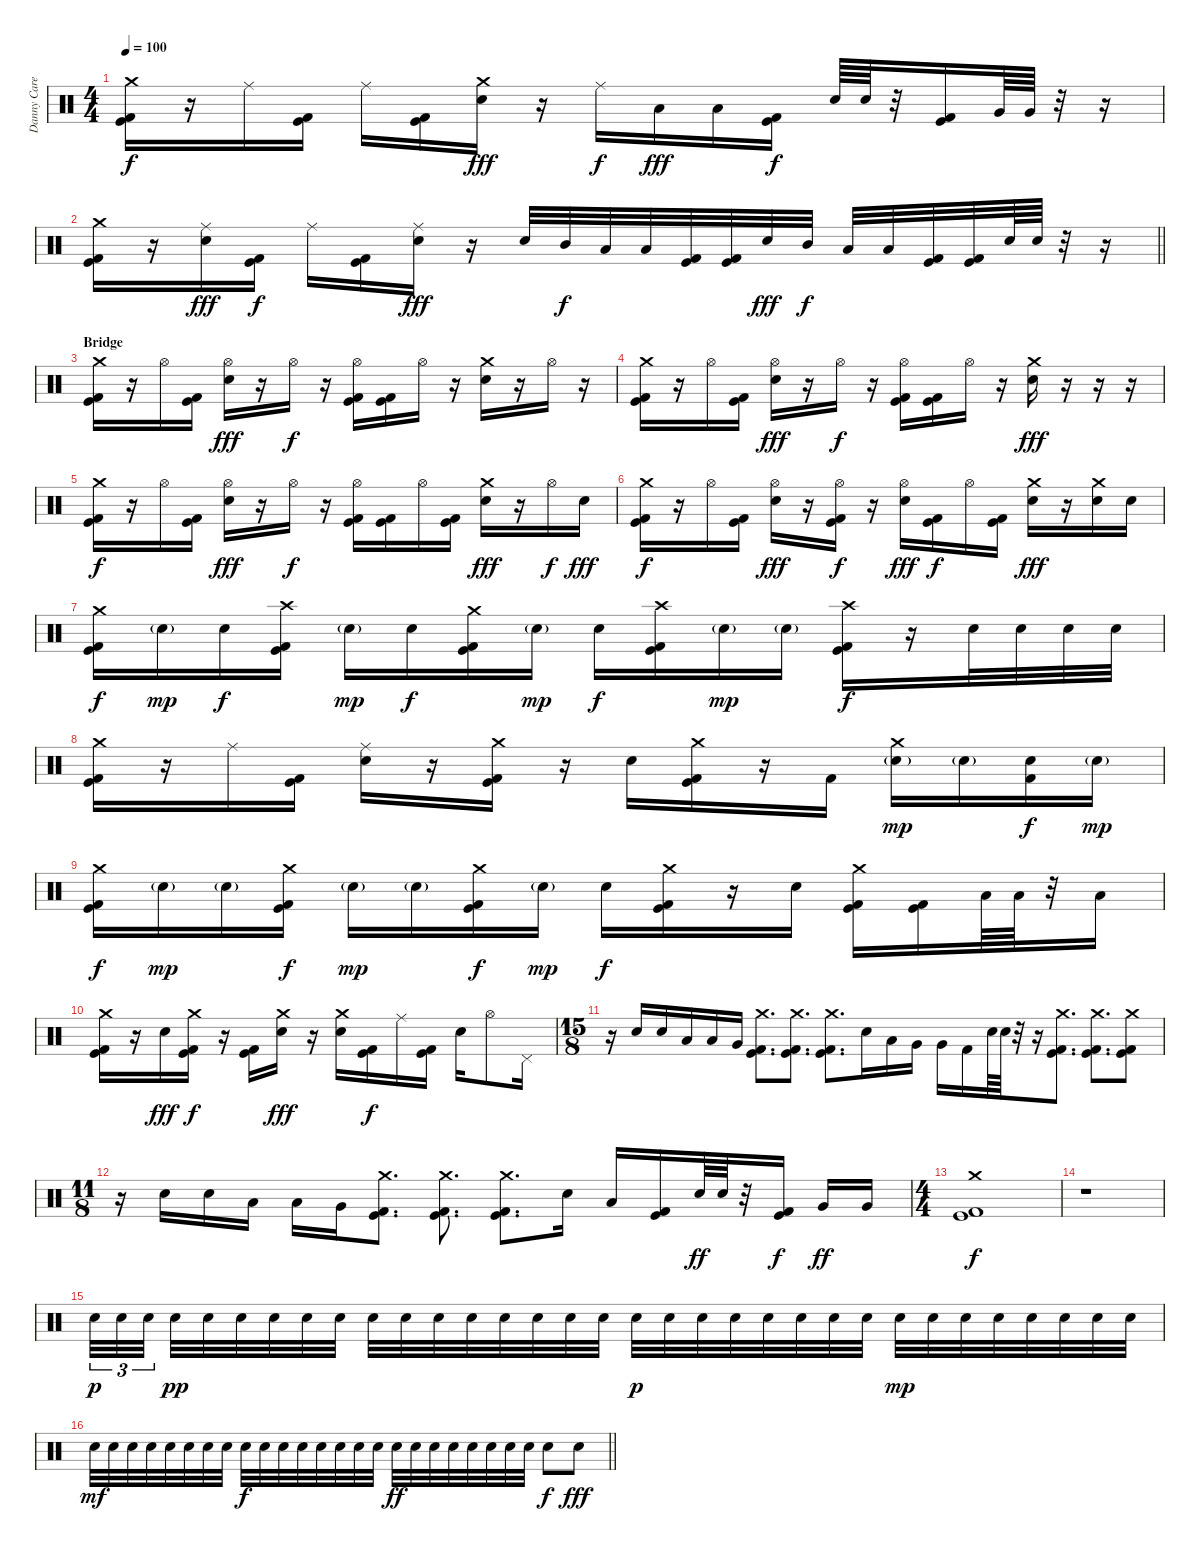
\track ("Danny Carey - Percussion" "Danny Care") {instrument percussion}
\staff {score}
\articulation defaults
\ts (4 4)
\tempo 100
\clef neutral
\ks c
("Crash medium (hit)" "Kick (hit)" "Kick (hit) 2").16{dy f} r.16 "Ride (middle)".16 ("Kick (hit)" "Kick (hit) 2").16 "Ride (middle)".16 ("Kick (hit)" "Kick (hit) 2").16 ("Crash medium (hit)" "Electric Snare (hit)").16{dy fff} r.16 "Ride (middle)".16{dy f} "Low Tom (hit)".16{dy fff} "Low Tom (hit)".16 ("Kick (hit)" "Kick (hit) 2").16{dy f} "Electric Snare (hit)".64 "Electric Snare (hit)".64 r.32 ("Kick (hit)" "Kick (hit) 2").16 "Very Low Tom (hit)".64 "Very Low Tom (hit)".64 r.32 r.16 |
\barLineRight lightlight
("Crash medium (hit)" "Kick (hit)" "Kick (hit) 2").16 r.16 ("Ride (middle)" "Electric Snare (hit)").16{dy fff} ("Kick (hit)" "Kick (hit) 2").16{dy f} "Ride (middle)".16 ("Kick (hit)" "Kick (hit) 2").16 ("Ride (middle)" "Electric Snare (hit)").16{dy fff} r.16 "Electric Snare (hit)".32 "Mid Tom (hit)".32{dy f} "Low Tom (hit)".32 "Low Tom (hit)".32 ("Kick (hit)" "Kick (hit) 2").32 ("Kick (hit)" "Kick (hit) 2").32 "Electric Snare (hit)".32{dy fff} "Mid Tom (hit)".32{dy f} "Low Tom (hit)".32 "Low Tom (hit)".32 ("Kick (hit)" "Kick (hit) 2").32 ("Kick (hit)" "Kick (hit) 2").32 "Electric Snare (hit)".64 "Electric Snare (hit)".64 r.32 r.16 |
\section ("" "Bridge")
("Crash medium (hit)" "Kick (hit)" "Kick (hit) 2").16 r.16 "Hi-Hat (open)".16 ("Kick (hit)" "Kick (hit) 2").16 ("Hi-Hat (open)" "Electric Snare (hit)").16{dy fff} r.16 "Hi-Hat (open)".16{dy f} r.16 ("Hi-Hat (open)" "Kick (hit)" "Kick (hit) 2").16 ("Kick (hit)" "Kick (hit) 2").16 "Hi-Hat (open)".16 r.16 ("Crash medium (hit)" "Electric Snare (hit)").16 r.16 "Hi-Hat (open)".16 r.16 |
("Crash medium (hit)" "Kick (hit)" "Kick (hit) 2").16 r.16 "Hi-Hat (open)".16 ("Kick (hit)" "Kick (hit) 2").16 ("Hi-Hat (open)" "Electric Snare (hit)").16{dy fff} r.16 "Hi-Hat (open)".16{dy f} r.16 ("Hi-Hat (open)" "Kick (hit)" "Kick (hit) 2").16 ("Kick (hit)" "Kick (hit) 2").16 "Hi-Hat (open)".16 r.16 ("Crash medium (hit)" "Electric Snare (hit)").16{dy fff} r.16 r.16 r.16 |
("Crash medium (hit)" "Kick (hit)" "Kick (hit) 2").16{dy f} r.16 "Hi-Hat (open)".16 ("Kick (hit)" "Kick (hit) 2").16 ("Hi-Hat (open)" "Electric Snare (hit)").16{dy fff} r.16 "Hi-Hat (open)".16{dy f} r.16 ("Hi-Hat (open)" "Kick (hit)" "Kick (hit) 2").16 ("Kick (hit)" "Kick (hit) 2").16 "Hi-Hat (open)".16 ("Kick (hit)" "Kick (hit) 2").16 ("Crash medium (hit)" "Electric Snare (hit)").16{dy fff} r.16 "Hi-Hat (open)".16{dy f} "Electric Snare (hit)".16{dy fff} |
("Crash medium (hit)" "Kick (hit)" "Kick (hit) 2").16{dy f} r.16 "Hi-Hat (open)".16 ("Kick (hit)" "Kick (hit) 2").16 ("Hi-Hat (open)" "Electric Snare (hit)").16{dy fff} r.16 ("Hi-Hat (open)" "Kick (hit)" "Kick (hit) 2").16{dy f} r.16 ("Hi-Hat (open)" "Electric Snare (hit)").16{dy fff} ("Kick (hit)" "Kick (hit) 2").16{dy f} "Hi-Hat (open)".16 ("Kick (hit)" "Kick (hit) 2").16 ("Crash medium (hit)" "Electric Snare (hit)").16{dy fff} r.16 ("Crash medium (hit)" "Electric Snare (hit)").16 "Electric Snare (hit)".16 |
("Crash medium (hit)" "Kick (hit)" "Kick (hit) 2").16{dy f} "Electric Snare (hit)"{g}.16{dy mp} "Electric Snare (hit)".16{dy f} ("Crash high (hit)" "Kick (hit)" "Kick (hit) 2").16 "Electric Snare (hit)"{g}.16{dy mp} "Electric Snare (hit)".16{dy f} ("Crash medium (hit)" "Kick (hit)" "Kick (hit) 2").16 "Electric Snare (hit)"{g}.16{dy mp} "Electric Snare (hit)".16{dy f} ("Crash high (hit)" "Kick (hit)" "Kick (hit) 2").16 "Electric Snare (hit)"{g}.16{dy mp} "Electric Snare (hit)"{g}.16 ("Crash high (hit)" "Kick (hit)" "Kick (hit) 2").16{dy f} r.16 "Electric Snare (hit)".32 "Electric Snare (hit)".32 "Electric Snare (hit)".32 "Electric Snare (hit)".32 |
("Crash medium (hit)" "Kick (hit)" "Kick (hit) 2").16 r.16 "Ride (middle)".16 ("Kick (hit)" "Kick (hit) 2").16 ("Ride (middle)" "Electric Snare (hit)").16 r.16 ("Crash medium (hit)" "Kick (hit)" "Kick (hit) 2").16 r.16 "Electric Snare (hit)".16 ("Crash medium (hit)" "Kick (hit)" "Kick (hit) 2").16 r.16 "Kick (hit) 2".16 ("Crash medium (hit)" "Electric Snare (hit)"{g}).16{dy mp} "Electric Snare (hit)"{g}.16 ("Electric Snare (hit)" "Kick (hit) 2").16{dy f} "Electric Snare (hit)"{g}.16{dy mp} |
("Crash medium (hit)" "Kick (hit)" "Kick (hit) 2").16{dy f} "Electric Snare (hit)"{g}.16{dy mp} "Electric Snare (hit)"{g}.16 ("Crash medium (hit)" "Kick (hit)" "Kick (hit) 2").16{dy f} "Electric Snare (hit)"{g}.16{dy mp} "Electric Snare (hit)"{g}.16 ("Crash medium (hit)" "Kick (hit)" "Kick (hit) 2").16{dy f} "Electric Snare (hit)"{g}.16{dy mp} "Electric Snare (hit)".16{dy f} ("Crash medium (hit)" "Kick (hit)" "Kick (hit) 2").16 r.16 "Electric Snare (hit)".16 ("Crash medium (hit)" "Kick (hit)" "Kick (hit) 2").16 ("Kick (hit)" "Kick (hit) 2").16 "Low Tom (hit)".64 "Low Tom (hit)".64 r.32 "Low Tom (hit)".16 |
("Crash medium (hit)" "Kick (hit)" "Kick (hit) 2").16 r.16 "Electric Snare (hit)".16{dy fff} ("Crash medium (hit)" "Kick (hit)" "Kick (hit) 2").16{dy f} r.16 ("Kick (hit)" "Kick (hit) 2").16 ("Crash medium (hit)" "Electric Snare (hit)").16{dy fff} r.16 ("Crash medium (hit)" "Electric Snare (hit)").16 ("Kick (hit)" "Kick (hit) 2").16{dy f} "Ride (middle)".16 ("Kick (hit)" "Kick (hit) 2").16 "Electric Snare (hit)".16 "Hi-Hat (open)".8 "Pedal Hi-Hat (hit)".16 |
\ts (15 8)
r.16 "Electric Snare (hit)".16 "Electric Snare (hit)".16 "Low Tom (hit)".16 "Low Tom (hit)".16 "Very Low Tom (hit)".16 ("Crash medium (hit)" "Kick (hit)" "Kick (hit) 2").8{d} ("Crash medium (hit)" "Kick (hit)" "Kick (hit) 2").8{d} ("Crash medium (hit)" "Kick (hit)" "Kick (hit) 2").8{d} "Electric Snare (hit)".16 "Low Tom (hit)".16 "Very Low Tom (hit)".16 "Very Low Tom (hit)".16 "Kick (hit) 2".16 "Electric Snare (hit)".64 "Electric Snare (hit)".64 r.32 r.16 ("Crash medium (hit)" "Kick (hit)" "Kick (hit) 2").8{d} ("Crash medium (hit)" "Kick (hit)" "Kick (hit) 2").8{d} ("Crash medium (hit)" "Kick (hit)" "Kick (hit) 2").8 |
\ts (11 8)
r.16 "Electric Snare (hit)".16 "Electric Snare (hit)".16 "Low Tom (hit)".16 "Low Tom (hit)".16 "Very Low Tom (hit)".16 ("Crash medium (hit)" "Kick (hit)" "Kick (hit) 2").8{d} ("Crash medium (hit)" "Kick (hit)" "Kick (hit) 2").8{d} ("Crash medium (hit)" "Kick (hit)" "Kick (hit) 2").8{d} "Electric Snare (hit)".16 "Low Tom (hit)".16 ("Kick (hit)" "Kick (hit) 2").16 "Electric Snare (hit)".64{dy ff} "Electric Snare (hit)".64 r.32 ("Kick (hit)" "Kick (hit) 2").16{dy f} "Very Low Tom (hit)".16{dy ff} "Very Low Tom (hit)".16 |
\ts (4 4)
("Crash medium (hit)" "Kick (hit)" "Kick (hit) 2").1{dy f} |
r.1 |
"Electric Snare (hit)".32{tu (3 2) dy p} "Electric Snare (hit)".32{tu (3 2)} "Electric Snare (hit)".32{tu (3 2) beam splitsecondary} "Electric Snare (hit)".32{dy pp} "Electric Snare (hit)".32 "Electric Snare (hit)".32 "Electric Snare (hit)".32 "Electric Snare (hit)".32 "Electric Snare (hit)".32 "Electric Snare (hit)".32 "Electric Snare (hit)".32 "Electric Snare (hit)".32 "Electric Snare (hit)".32 "Electric Snare (hit)".32 "Electric Snare (hit)".32 "Electric Snare (hit)".32 "Electric Snare (hit)".32 "Electric Snare (hit)".32{dy p} "Electric Snare (hit)".32 "Electric Snare (hit)".32 "Electric Snare (hit)".32 "Electric Snare (hit)".32 "Electric Snare (hit)".32 "Electric Snare (hit)".32 "Electric Snare (hit)".32 "Electric Snare (hit)".32{dy mp} "Electric Snare (hit)".32 "Electric Snare (hit)".32 "Electric Snare (hit)".32 "Electric Snare (hit)".32 "Electric Snare (hit)".32 "Electric Snare (hit)".32 "Electric Snare (hit)".32 |
\barLineRight lightlight "Electric Snare (hit)".32{dy mf} "Electric Snare (hit)".32 "Electric Snare (hit)".32 "Electric Snare (hit)".32 "Electric Snare (hit)".32 "Electric Snare (hit)".32 "Electric Snare (hit)".32 "Electric Snare (hit)".32 "Electric Snare (hit)".32{dy f} "Electric Snare (hit)".32 "Electric Snare (hit)".32 "Electric Snare (hit)".32 "Electric Snare (hit)".32 "Electric Snare (hit)".32 "Electric Snare (hit)".32 "Electric Snare (hit)".32 "Electric Snare (hit)".32{dy ff} "Electric Snare (hit)".32 "Electric Snare (hit)".32 "Electric Snare (hit)".32 "Electric Snare (hit)".32 "Electric Snare (hit)".32 "Electric Snare (hit)".32 "Electric Snare (hit)".32 "Electric Snare (hit)".8{dy f} "Electric Snare (hit)".8{dy fff}
